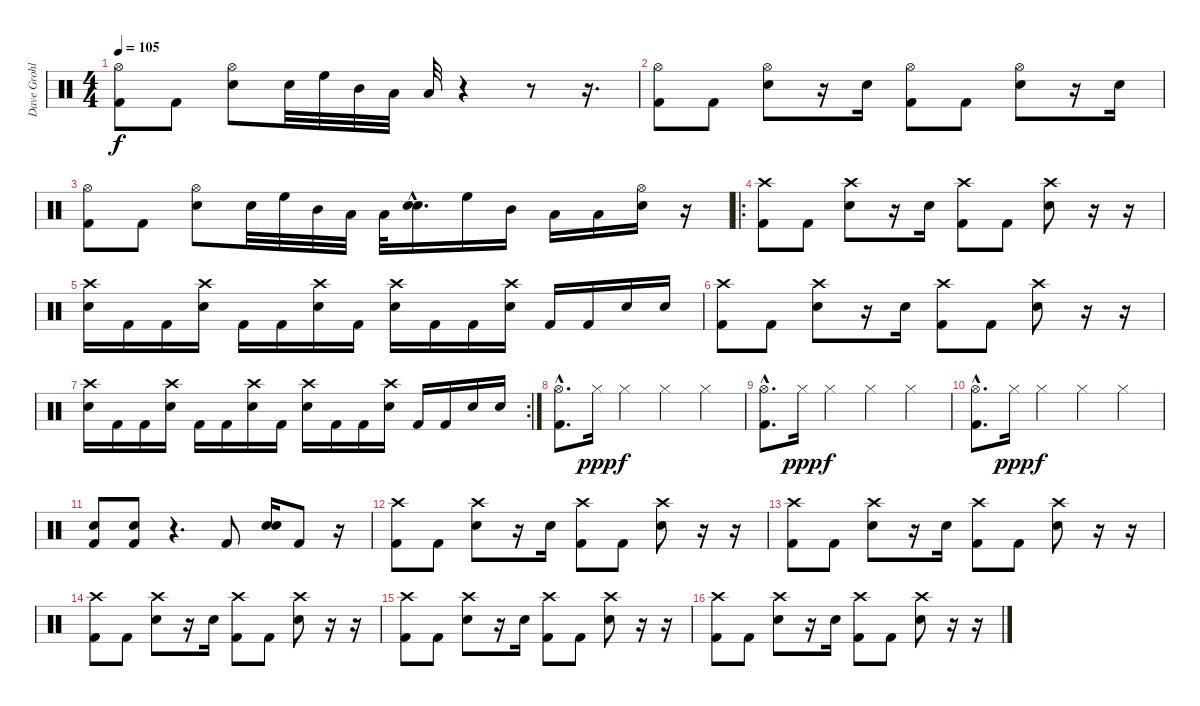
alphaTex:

\track ("Dave Grohl" "Dave Grohl") {instrument percussion}
\staff {score}
\articulation defaults
\ts (4 4)
\tempo 105
\clef neutral
\ks c
("Hi-Hat (open)" "Kick (hit) 2").8{dy f} "Kick (hit) 2".8 ("Hi-Hat (open)" "Snare (hit) 2").8 "Snare (hit) 2".32 "High Floor Tom (hit)".32 "Mid Tom (hit)".32 "Low Tom (hit)".32 "Low Floor Tom (hit)".32 r.4 r.8 r.16{d} |
("Hi-Hat (open)" "Kick (hit) 2").8 "Kick (hit) 2".8 ("Hi-Hat (open)" "Snare (hit) 2").8 r.16 "Snare (hit) 2".16 ("Hi-Hat (open)" "Kick (hit) 2").8 "Kick (hit) 2".8 ("Hi-Hat (open)" "Snare (hit) 2").8 r.16 "Snare (hit) 2".16 |
("Hi-Hat (open)" "Kick (hit) 2").8 "Kick (hit) 2".8 ("Hi-Hat (open)" "Snare (hit) 2").8 "Snare (hit) 2".32 "High Floor Tom (hit)".32 "Mid Tom (hit)".32 "Low Tom (hit)".32 "Low Floor Tom (hit)".32 ("Snare (hit) 2"{hac} "Snare (hit) 2"{hac}).16{d bd 480} "High Floor Tom (hit)".16 "Mid Tom (hit)".16 "Low Tom (hit)".16 "Low Floor Tom (hit)".16 ("Hi-Hat (open)" "Snare (hit) 2").16 r.16 |
\ro
("Crash high (hit)" "Kick (hit) 2").8 "Kick (hit) 2".8 ("Crash high (hit)" "Snare (hit) 2").8 r.16 "Snare (hit) 2".16 ("Crash high (hit)" "Kick (hit) 2").8 "Kick (hit) 2".8 ("Crash high (hit)" "Snare (hit) 2").8 r.16 r.16 |
("Crash high (hit)" "Snare (hit) 2").16 "Kick (hit) 2".16 "Kick (hit) 2".16 ("Crash high (hit)" "Snare (hit) 2").16 "Kick (hit) 2".16 "Kick (hit) 2".16 ("Crash high (hit)" "Snare (hit) 2").16 "Kick (hit) 2".16 ("Crash high (hit)" "Snare (hit) 2").16 "Kick (hit) 2".16 "Kick (hit) 2".16 ("Crash high (hit)" "Snare (hit) 2").16 "Kick (hit) 2".16 "Kick (hit) 2".16 "Snare (hit) 2".16 "Snare (hit) 2".16 |
("Crash high (hit)" "Kick (hit) 2").8 "Kick (hit) 2".8 ("Crash high (hit)" "Snare (hit) 2").8 r.16 "Snare (hit) 2".16 ("Crash high (hit)" "Kick (hit) 2").8 "Kick (hit) 2".8 ("Crash high (hit)" "Snare (hit) 2").8 r.16 r.16 |
\rc 2
("Crash high (hit)" "Snare (hit) 2").16 "Kick (hit) 2".16 "Kick (hit) 2".16 ("Crash high (hit)" "Snare (hit) 2").16 "Kick (hit) 2".16 "Kick (hit) 2".16 ("Crash high (hit)" "Snare (hit) 2").16 "Kick (hit) 2".16 ("Crash high (hit)" "Snare (hit) 2").16 "Kick (hit) 2".16 "Kick (hit) 2".16 ("Crash high (hit)" "Snare (hit) 2").16 "Kick (hit) 2".16 "Kick (hit) 2".16 "Snare (hit) 2".16 "Snare (hit) 2".16 |
("Hi-Hat (open)"{hac} "Kick (hit) 2"{hac}).8{d} "Hi-Hat (closed)".16{dy ppp} "Hi-Hat (closed)".4{dy f} "Hi-Hat (closed)".4 "Hi-Hat (closed)".4 |
("Hi-Hat (open)"{hac} "Kick (hit) 2"{hac}).8{d} "Hi-Hat (closed)".16{dy ppp} "Hi-Hat (closed)".4{dy f} "Hi-Hat (closed)".4 "Hi-Hat (closed)".4 |
("Hi-Hat (open)"{hac} "Kick (hit) 2"{hac}).8{d} "Hi-Hat (closed)".16{dy ppp} "Hi-Hat (closed)".4{dy f} "Hi-Hat (closed)".4 "Hi-Hat (closed)".4 |
("Snare (hit) 2" "Kick (hit) 2").8 ("Snare (hit) 2" "Kick (hit) 2").8 r.4{d} "Kick (hit) 2".8 ("Snare (hit) 2" "Snare (hit) 2").16{bd 480} "Kick (hit) 2".8 r.16 |
("Crash high (hit)" "Kick (hit) 2").8 "Kick (hit) 2".8 ("Crash high (hit)" "Snare (hit) 2").8 r.16 "Snare (hit) 2".16 ("Crash high (hit)" "Kick (hit) 2").8 "Kick (hit) 2".8 ("Crash high (hit)" "Snare (hit) 2").8 r.16 r.16 |
("Crash high (hit)" "Kick (hit) 2").8 "Kick (hit) 2".8 ("Crash high (hit)" "Snare (hit) 2").8 r.16 "Snare (hit) 2".16 ("Crash high (hit)" "Kick (hit) 2").8 "Kick (hit) 2".8 ("Crash high (hit)" "Snare (hit) 2").8 r.16 r.16 |
("Crash high (hit)" "Kick (hit) 2").8 "Kick (hit) 2".8 ("Crash high (hit)" "Snare (hit) 2").8 r.16 "Snare (hit) 2".16 ("Crash high (hit)" "Kick (hit) 2").8 "Kick (hit) 2".8 ("Crash high (hit)" "Snare (hit) 2").8 r.16 r.16 |
("Crash high (hit)" "Kick (hit) 2").8 "Kick (hit) 2".8 ("Crash high (hit)" "Snare (hit) 2").8 r.16 "Snare (hit) 2".16 ("Crash high (hit)" "Kick (hit) 2").8 "Kick (hit) 2".8 ("Crash high (hit)" "Snare (hit) 2").8 r.16 r.16 |
("Crash high (hit)" "Kick (hit) 2").8 "Kick (hit) 2".8 ("Crash high (hit)" "Snare (hit) 2").8 r.16 "Snare (hit) 2".16 ("Crash high (hit)" "Kick (hit) 2").8 "Kick (hit) 2".8 ("Crash high (hit)" "Snare (hit) 2").8 r.16 r.16
